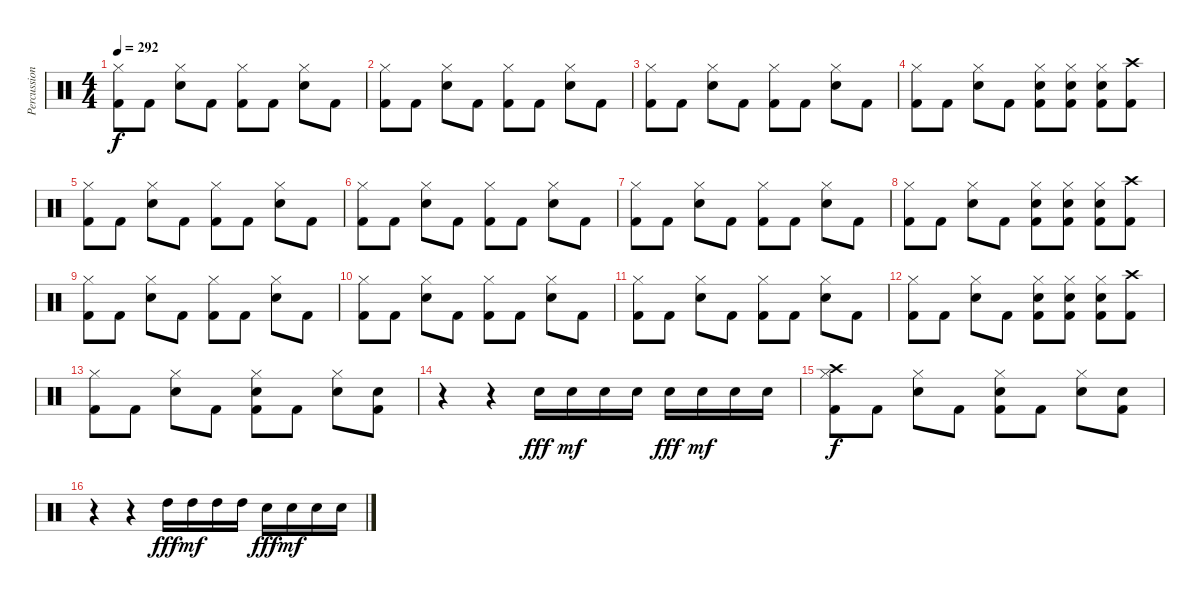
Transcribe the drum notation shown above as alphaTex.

\track ("Percussion" "Percussion") {instrument percussion}
\staff {score}
\articulation defaults
\ts (4 4)
\tempo 292
\clef neutral
\ks c
("Hi-Hat (closed)" "Kick (hit) 2").8{dy f} "Kick (hit) 2".8 ("Hi-Hat (closed)" "Electric Snare (hit)").8 "Kick (hit) 2".8 ("Hi-Hat (closed)" "Kick (hit) 2").8 "Kick (hit) 2".8 ("Hi-Hat (closed)" "Electric Snare (hit)").8 "Kick (hit) 2".8 |
("Hi-Hat (closed)" "Kick (hit) 2").8 "Kick (hit) 2".8 ("Hi-Hat (closed)" "Electric Snare (hit)").8 "Kick (hit) 2".8 ("Hi-Hat (closed)" "Kick (hit) 2").8 "Kick (hit) 2".8 ("Hi-Hat (closed)" "Electric Snare (hit)").8 "Kick (hit) 2".8 |
("Hi-Hat (closed)" "Kick (hit) 2").8 "Kick (hit) 2".8 ("Hi-Hat (closed)" "Electric Snare (hit)").8 "Kick (hit) 2".8 ("Hi-Hat (closed)" "Kick (hit) 2").8 "Kick (hit) 2".8 ("Hi-Hat (closed)" "Electric Snare (hit)").8 "Kick (hit) 2".8 |
("Hi-Hat (closed)" "Kick (hit) 2").8 "Kick (hit) 2".8 ("Hi-Hat (closed)" "Electric Snare (hit)").8 "Kick (hit) 2".8 ("Hi-Hat (closed)" "Electric Snare (hit)" "Kick (hit) 2").8 ("Hi-Hat (closed)" "Electric Snare (hit)" "Kick (hit) 2").8 ("Hi-Hat (closed)" "Electric Snare (hit)" "Kick (hit) 2").8 ("Crash high (hit)" "Kick (hit) 2").8 |
("Hi-Hat (closed)" "Kick (hit) 2").8 "Kick (hit) 2".8 ("Hi-Hat (closed)" "Electric Snare (hit)").8 "Kick (hit) 2".8 ("Hi-Hat (closed)" "Kick (hit) 2").8 "Kick (hit) 2".8 ("Hi-Hat (closed)" "Electric Snare (hit)").8 "Kick (hit) 2".8 |
("Hi-Hat (closed)" "Kick (hit) 2").8 "Kick (hit) 2".8 ("Hi-Hat (closed)" "Electric Snare (hit)").8 "Kick (hit) 2".8 ("Hi-Hat (closed)" "Kick (hit) 2").8 "Kick (hit) 2".8 ("Hi-Hat (closed)" "Electric Snare (hit)").8 "Kick (hit) 2".8 |
("Hi-Hat (closed)" "Kick (hit) 2").8 "Kick (hit) 2".8 ("Hi-Hat (closed)" "Electric Snare (hit)").8 "Kick (hit) 2".8 ("Hi-Hat (closed)" "Kick (hit) 2").8 "Kick (hit) 2".8 ("Hi-Hat (closed)" "Electric Snare (hit)").8 "Kick (hit) 2".8 |
("Hi-Hat (closed)" "Kick (hit) 2").8 "Kick (hit) 2".8 ("Hi-Hat (closed)" "Electric Snare (hit)").8 "Kick (hit) 2".8 ("Hi-Hat (closed)" "Electric Snare (hit)" "Kick (hit) 2").8 ("Hi-Hat (closed)" "Electric Snare (hit)" "Kick (hit) 2").8 ("Hi-Hat (closed)" "Electric Snare (hit)" "Kick (hit) 2").8 ("Crash high (hit)" "Kick (hit) 2").8 |
("Hi-Hat (closed)" "Kick (hit) 2").8 "Kick (hit) 2".8 ("Hi-Hat (closed)" "Electric Snare (hit)").8 "Kick (hit) 2".8 ("Hi-Hat (closed)" "Kick (hit) 2").8 "Kick (hit) 2".8 ("Hi-Hat (closed)" "Electric Snare (hit)").8 "Kick (hit) 2".8 |
("Hi-Hat (closed)" "Kick (hit) 2").8 "Kick (hit) 2".8 ("Hi-Hat (closed)" "Electric Snare (hit)").8 "Kick (hit) 2".8 ("Hi-Hat (closed)" "Kick (hit) 2").8 "Kick (hit) 2".8 ("Hi-Hat (closed)" "Electric Snare (hit)").8 "Kick (hit) 2".8 |
("Hi-Hat (closed)" "Kick (hit) 2").8 "Kick (hit) 2".8 ("Hi-Hat (closed)" "Electric Snare (hit)").8 "Kick (hit) 2".8 ("Hi-Hat (closed)" "Kick (hit) 2").8 "Kick (hit) 2".8 ("Hi-Hat (closed)" "Electric Snare (hit)").8 "Kick (hit) 2".8 |
("Hi-Hat (closed)" "Kick (hit) 2").8 "Kick (hit) 2".8 ("Hi-Hat (closed)" "Electric Snare (hit)").8 "Kick (hit) 2".8 ("Hi-Hat (closed)" "Electric Snare (hit)" "Kick (hit) 2").8 ("Hi-Hat (closed)" "Electric Snare (hit)" "Kick (hit) 2").8 ("Hi-Hat (closed)" "Electric Snare (hit)" "Kick (hit) 2").8 ("Crash high (hit)" "Kick (hit) 2").8 |
("Hi-Hat (closed)" "Kick (hit) 2").8 "Kick (hit) 2".8 ("Hi-Hat (closed)" "Electric Snare (hit)").8 "Kick (hit) 2".8 ("Hi-Hat (closed)" "Electric Snare (hit)" "Kick (hit) 2").8 "Kick (hit) 2".8 ("Hi-Hat (closed)" "Electric Snare (hit)").8 ("Electric Snare (hit)" "Kick (hit) 2").8 |
r.4 r.4 "Electric Snare (hit)".16{dy fff} "Electric Snare (hit)".16{dy mf} "Electric Snare (hit)".16 "Electric Snare (hit)".16 "Electric Snare (hit)".16{dy fff} "Electric Snare (hit)".16{dy mf} "Electric Snare (hit)".16 "Electric Snare (hit)".16 |
("Crash high (hit)" "Hi-Hat (closed)" "Kick (hit) 2").8{dy f} "Kick (hit) 2".8 ("Hi-Hat (closed)" "Electric Snare (hit)").8 "Kick (hit) 2".8 ("Hi-Hat (closed)" "Electric Snare (hit)" "Kick (hit) 2").8 "Kick (hit) 2".8 ("Hi-Hat (closed)" "Electric Snare (hit)").8 ("Electric Snare (hit)" "Kick (hit) 2").8 |
r.4 r.4 "High Tom (hit)".16{dy fff} "High Tom (hit)".16{dy mf} "High Tom (hit)".16 "High Tom (hit)".16 "Electric Snare (hit)".16{dy fff} "Electric Snare (hit)".16{dy mf} "Electric Snare (hit)".16 "Electric Snare (hit)".16
